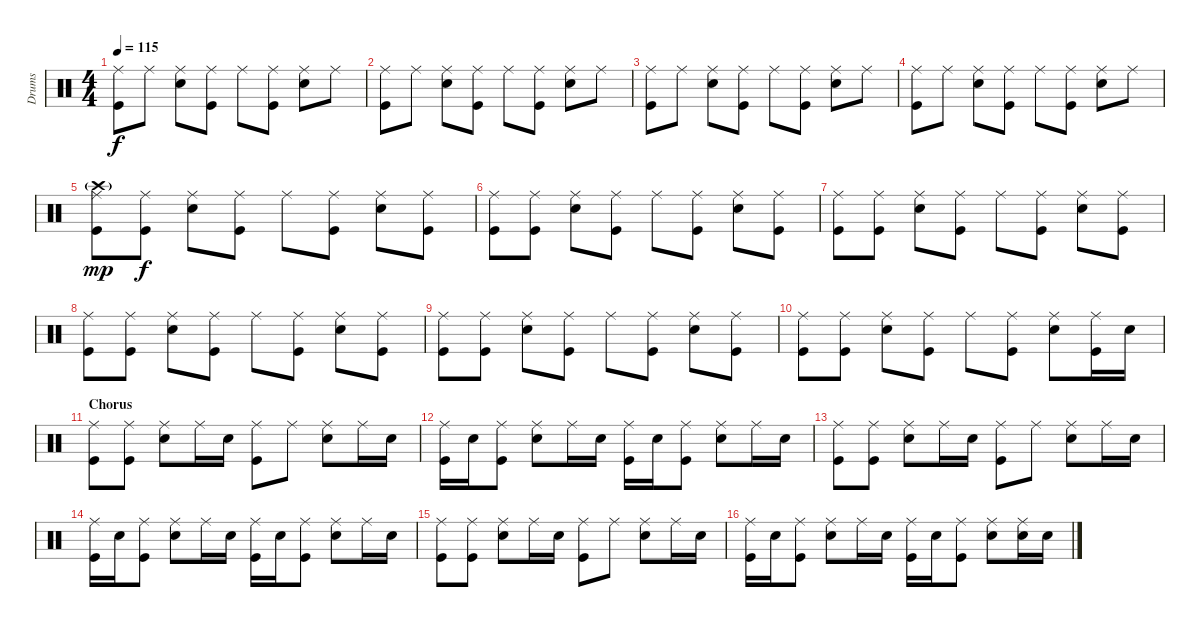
\track ("Drums" "Drums") {instrument percussion}
\staff {score}
\articulation defaults
\ts (4 4)
\tempo 115
\clef neutral
\ks c
("Ride (middle)" "Kick (hit)").8{dy f} "Ride (middle)".8 ("Ride (middle)" "Snare (hit) 2").8 ("Ride (middle)" "Kick (hit)").8 "Ride (middle)".8 ("Ride (middle)" "Kick (hit)").8 ("Ride (middle)" "Snare (hit) 2").8 "Ride (middle)".8 |
("Ride (middle)" "Kick (hit)").8 "Ride (middle)".8 ("Ride (middle)" "Snare (hit) 2").8 ("Ride (middle)" "Kick (hit)").8 "Ride (middle)".8 ("Ride (middle)" "Kick (hit)").8 ("Ride (middle)" "Snare (hit) 2").8 "Ride (middle)".8 |
("Ride (middle)" "Kick (hit)").8 "Ride (middle)".8 ("Ride (middle)" "Snare (hit) 2").8 ("Ride (middle)" "Kick (hit)").8 "Ride (middle)".8 ("Ride (middle)" "Kick (hit)").8 ("Ride (middle)" "Snare (hit) 2").8 "Ride (middle)".8 |
("Ride (middle)" "Kick (hit)").8 "Ride (middle)".8 ("Ride (middle)" "Snare (hit) 2").8 ("Ride (middle)" "Kick (hit)").8 "Ride (middle)".8 ("Ride (middle)" "Kick (hit)").8 ("Ride (middle)" "Snare (hit) 2").8 "Ride (middle)".8 |
\section ("" "")
("Ride (middle)" "Crash high (hit)"{g} "Kick (hit)").8{dy mp} ("Ride (middle)" "Kick (hit)").8{dy f} ("Ride (middle)" "Snare (hit) 2").8 ("Ride (middle)" "Kick (hit)").8 "Ride (middle)".8 ("Ride (middle)" "Kick (hit)").8 ("Ride (middle)" "Snare (hit) 2").8 ("Ride (middle)" "Kick (hit)").8 |
("Ride (middle)" "Kick (hit)").8 ("Ride (middle)" "Kick (hit)").8 ("Ride (middle)" "Snare (hit) 2").8 ("Ride (middle)" "Kick (hit)").8 "Ride (middle)".8 ("Ride (middle)" "Kick (hit)").8 ("Ride (middle)" "Snare (hit) 2").8 ("Ride (middle)" "Kick (hit)").8 |
("Ride (middle)" "Kick (hit)").8 ("Ride (middle)" "Kick (hit)").8 ("Ride (middle)" "Snare (hit) 2").8 ("Ride (middle)" "Kick (hit)").8 "Ride (middle)".8 ("Ride (middle)" "Kick (hit)").8 ("Ride (middle)" "Snare (hit) 2").8 ("Ride (middle)" "Kick (hit)").8 |
("Ride (middle)" "Kick (hit)").8 ("Ride (middle)" "Kick (hit)").8 ("Ride (middle)" "Snare (hit) 2").8 ("Ride (middle)" "Kick (hit)").8 "Ride (middle)".8 ("Ride (middle)" "Kick (hit)").8 ("Ride (middle)" "Snare (hit) 2").8 ("Ride (middle)" "Kick (hit)").8 |
("Ride (middle)" "Kick (hit)").8 ("Ride (middle)" "Kick (hit)").8 ("Ride (middle)" "Snare (hit) 2").8 ("Ride (middle)" "Kick (hit)").8 "Ride (middle)".8 ("Ride (middle)" "Kick (hit)").8 ("Ride (middle)" "Snare (hit) 2").8 ("Ride (middle)" "Kick (hit)").8 |
("Ride (middle)" "Kick (hit)").8 ("Ride (middle)" "Kick (hit)").8 ("Ride (middle)" "Snare (hit) 2").8 ("Ride (middle)" "Kick (hit)").8 "Ride (middle)".8 ("Ride (middle)" "Kick (hit)").8 ("Ride (middle)" "Snare (hit) 2").8 ("Ride (middle)" "Kick (hit)").16 "Snare (hit) 2".16 |
\section ("" "Chorus")
("Ride (middle)" "Kick (hit)").8 ("Ride (middle)" "Kick (hit)").8 ("Ride (middle)" "Snare (hit) 2").8 "Ride (middle)".16 "Snare (hit) 2".16 ("Ride (middle)" "Kick (hit)").8 "Ride (middle)".8 ("Ride (middle)" "Snare (hit) 2").8 "Ride (middle)".16 "Snare (hit) 2".16 |
("Ride (middle)" "Kick (hit)").16 "Snare (hit) 2".16 ("Ride (middle)" "Kick (hit)").8 ("Ride (middle)" "Snare (hit) 2").8 "Ride (middle)".16 "Snare (hit) 2".16 ("Ride (middle)" "Kick (hit)").16 "Snare (hit) 2".16 ("Ride (middle)" "Kick (hit)").8 ("Ride (middle)" "Snare (hit) 2").8 "Ride (middle)".16 "Snare (hit) 2".16 |
("Ride (middle)" "Kick (hit)").8 ("Ride (middle)" "Kick (hit)").8 ("Ride (middle)" "Snare (hit) 2").8 "Ride (middle)".16 "Snare (hit) 2".16 ("Ride (middle)" "Kick (hit)").8 "Ride (middle)".8 ("Ride (middle)" "Snare (hit) 2").8 "Ride (middle)".16 "Snare (hit) 2".16 |
("Ride (middle)" "Kick (hit)").16 "Snare (hit) 2".16 ("Ride (middle)" "Kick (hit)").8 ("Ride (middle)" "Snare (hit) 2").8 "Ride (middle)".16 "Snare (hit) 2".16 ("Ride (middle)" "Kick (hit)").16 "Snare (hit) 2".16 ("Ride (middle)" "Kick (hit)").8 ("Ride (middle)" "Snare (hit) 2").8 "Ride (middle)".16 "Snare (hit) 2".16 |
("Ride (middle)" "Kick (hit)").8 ("Ride (middle)" "Kick (hit)").8 ("Ride (middle)" "Snare (hit) 2").8 "Ride (middle)".16 "Snare (hit) 2".16 ("Ride (middle)" "Kick (hit)").8 "Ride (middle)".8 ("Ride (middle)" "Snare (hit) 2").8 "Ride (middle)".16 "Snare (hit) 2".16 |
("Ride (middle)" "Kick (hit)").16 "Snare (hit) 2".16 ("Ride (middle)" "Kick (hit)").8 ("Ride (middle)" "Snare (hit) 2").8 "Ride (middle)".16 "Snare (hit) 2".16 ("Ride (middle)" "Kick (hit)").16 "Snare (hit) 2".16 ("Ride (middle)" "Kick (hit)").8 ("Ride (middle)" "Snare (hit) 2").8 ("Ride (middle)" "Snare (hit) 2").16 "Snare (hit) 2".16
